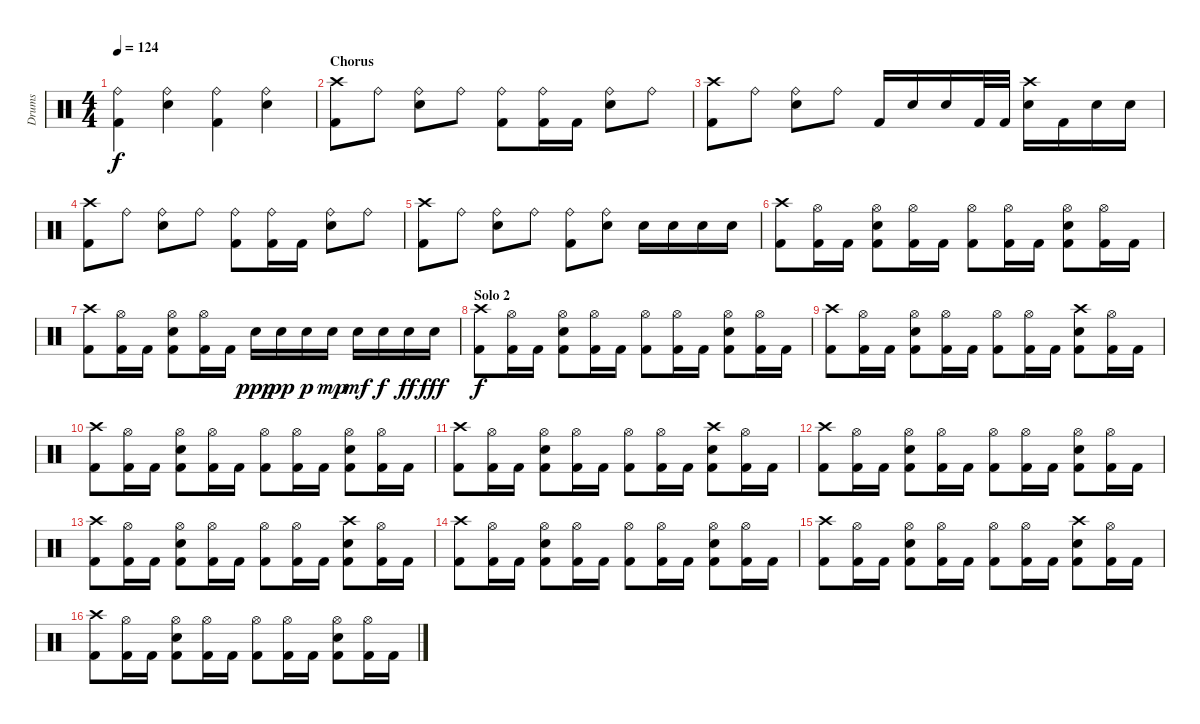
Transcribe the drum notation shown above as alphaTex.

\track ("Drums" "Drums") {instrument percussion}
\staff {score}
\articulation defaults
\ts (4 4)
\tempo 124
\clef neutral
\ks c
("Ride (bell)" "Kick (hit) 2").4{dy f} ("Ride (bell)" "Electric Snare (hit)").4 ("Ride (bell)" "Kick (hit) 2").4 ("Ride (bell)" "Electric Snare (hit)").4 |
\section ("" "Chorus")
("Crash high (hit)" "Kick (hit) 2").8 "Ride (bell)".8 ("Ride (bell)" "Electric Snare (hit)").8 "Ride (bell)".8 ("Ride (bell)" "Kick (hit) 2").8 ("Ride (bell)" "Kick (hit) 2").16 "Kick (hit) 2".16 ("Ride (bell)" "Electric Snare (hit)").8 "Ride (bell)".8 |
("Crash high (hit)" "Kick (hit) 2").8 "Ride (bell)".8 ("Ride (bell)" "Electric Snare (hit)").8 "Ride (bell)".8 "Kick (hit) 2".16 "Electric Snare (hit)".16 "Electric Snare (hit)".16 "Kick (hit) 2".32 "Kick (hit) 2".32 ("Crash high (hit)" "Electric Snare (hit)").16 "Kick (hit) 2".16 "Electric Snare (hit)".16 "Electric Snare (hit)".16 |
("Crash high (hit)" "Kick (hit) 2").8 "Ride (bell)".8 ("Ride (bell)" "Electric Snare (hit)").8 "Ride (bell)".8 ("Ride (bell)" "Kick (hit) 2").8 ("Ride (bell)" "Kick (hit) 2").16 "Kick (hit) 2".16 ("Ride (bell)" "Electric Snare (hit)").8 "Ride (bell)".8 |
("Crash high (hit)" "Kick (hit) 2").8 "Ride (bell)".8 ("Ride (bell)" "Electric Snare (hit)").8 "Ride (bell)".8 ("Ride (bell)" "Kick (hit) 2").8 ("Ride (bell)" "Electric Snare (hit)").8 "Electric Snare (hit)".16 "Electric Snare (hit)".16 "Electric Snare (hit)".16 "Electric Snare (hit)".16 |
\section ("" "")
("Crash high (hit)" "Kick (hit) 2").8 ("Hi-Hat (open)" "Kick (hit) 2").16 "Kick (hit) 2".16 ("Hi-Hat (open)" "Electric Snare (hit)" "Kick (hit) 2").8 ("Hi-Hat (open)" "Kick (hit) 2").16 "Kick (hit) 2".16 ("Hi-Hat (open)" "Kick (hit) 2").8 ("Hi-Hat (open)" "Kick (hit) 2").16 "Kick (hit) 2".16 ("Hi-Hat (open)" "Electric Snare (hit)" "Kick (hit) 2").8 ("Hi-Hat (open)" "Kick (hit) 2").16 "Kick (hit) 2".16 |
("Crash high (hit)" "Kick (hit) 2").8 ("Hi-Hat (open)" "Kick (hit) 2").16 "Kick (hit) 2".16 ("Hi-Hat (open)" "Electric Snare (hit)" "Kick (hit) 2").8 ("Hi-Hat (open)" "Kick (hit) 2").16 "Kick (hit) 2".16 "Electric Snare (hit)".16{dy ppp} "Electric Snare (hit)".16{dy pp} "Electric Snare (hit)".16{dy p} "Electric Snare (hit)".16{dy mp} "Electric Snare (hit)".16{dy mf} "Electric Snare (hit)".16{dy f} "Electric Snare (hit)".16{dy ff} "Electric Snare (hit)".16{dy fff} |
\section ("" "Solo 2")
("Crash high (hit)" "Kick (hit) 2").8{dy f} ("Hi-Hat (open)" "Kick (hit) 2").16 "Kick (hit) 2".16 ("Hi-Hat (open)" "Electric Snare (hit)" "Kick (hit) 2").8 ("Hi-Hat (open)" "Kick (hit) 2").16 "Kick (hit) 2".16 ("Hi-Hat (open)" "Kick (hit) 2").8 ("Hi-Hat (open)" "Kick (hit) 2").16 "Kick (hit) 2".16 ("Hi-Hat (open)" "Electric Snare (hit)" "Kick (hit) 2").8 ("Hi-Hat (open)" "Kick (hit) 2").16 "Kick (hit) 2".16 |
("Crash high (hit)" "Kick (hit) 2").8 ("Hi-Hat (open)" "Kick (hit) 2").16 "Kick (hit) 2".16 ("Hi-Hat (open)" "Electric Snare (hit)" "Kick (hit) 2").8 ("Hi-Hat (open)" "Kick (hit) 2").16 "Kick (hit) 2".16 ("Hi-Hat (open)" "Kick (hit) 2").8 ("Hi-Hat (open)" "Kick (hit) 2").16 "Kick (hit) 2".16 ("Crash high (hit)" "Electric Snare (hit)" "Kick (hit) 2").8 ("Hi-Hat (open)" "Kick (hit) 2").16 "Kick (hit) 2".16 |
("Crash high (hit)" "Kick (hit) 2").8 ("Hi-Hat (open)" "Kick (hit) 2").16 "Kick (hit) 2".16 ("Hi-Hat (open)" "Electric Snare (hit)" "Kick (hit) 2").8 ("Hi-Hat (open)" "Kick (hit) 2").16 "Kick (hit) 2".16 ("Hi-Hat (open)" "Kick (hit) 2").8 ("Hi-Hat (open)" "Kick (hit) 2").16 "Kick (hit) 2".16 ("Hi-Hat (open)" "Electric Snare (hit)" "Kick (hit) 2").8 ("Hi-Hat (open)" "Kick (hit) 2").16 "Kick (hit) 2".16 |
("Crash high (hit)" "Kick (hit) 2").8 ("Hi-Hat (open)" "Kick (hit) 2").16 "Kick (hit) 2".16 ("Hi-Hat (open)" "Electric Snare (hit)" "Kick (hit) 2").8 ("Hi-Hat (open)" "Kick (hit) 2").16 "Kick (hit) 2".16 ("Hi-Hat (open)" "Kick (hit) 2").8 ("Hi-Hat (open)" "Kick (hit) 2").16 "Kick (hit) 2".16 ("Crash high (hit)" "Electric Snare (hit)" "Kick (hit) 2").8 ("Hi-Hat (open)" "Kick (hit) 2").16 "Kick (hit) 2".16 |
("Crash high (hit)" "Kick (hit) 2").8 ("Hi-Hat (open)" "Kick (hit) 2").16 "Kick (hit) 2".16 ("Hi-Hat (open)" "Electric Snare (hit)" "Kick (hit) 2").8 ("Hi-Hat (open)" "Kick (hit) 2").16 "Kick (hit) 2".16 ("Hi-Hat (open)" "Kick (hit) 2").8 ("Hi-Hat (open)" "Kick (hit) 2").16 "Kick (hit) 2".16 ("Hi-Hat (open)" "Electric Snare (hit)" "Kick (hit) 2").8 ("Hi-Hat (open)" "Kick (hit) 2").16 "Kick (hit) 2".16 |
("Crash high (hit)" "Kick (hit) 2").8 ("Hi-Hat (open)" "Kick (hit) 2").16 "Kick (hit) 2".16 ("Hi-Hat (open)" "Electric Snare (hit)" "Kick (hit) 2").8 ("Hi-Hat (open)" "Kick (hit) 2").16 "Kick (hit) 2".16 ("Hi-Hat (open)" "Kick (hit) 2").8 ("Hi-Hat (open)" "Kick (hit) 2").16 "Kick (hit) 2".16 ("Crash high (hit)" "Electric Snare (hit)" "Kick (hit) 2").8 ("Hi-Hat (open)" "Kick (hit) 2").16 "Kick (hit) 2".16 |
("Crash high (hit)" "Kick (hit) 2").8 ("Hi-Hat (open)" "Kick (hit) 2").16 "Kick (hit) 2".16 ("Hi-Hat (open)" "Electric Snare (hit)" "Kick (hit) 2").8 ("Hi-Hat (open)" "Kick (hit) 2").16 "Kick (hit) 2".16 ("Hi-Hat (open)" "Kick (hit) 2").8 ("Hi-Hat (open)" "Kick (hit) 2").16 "Kick (hit) 2".16 ("Hi-Hat (open)" "Electric Snare (hit)" "Kick (hit) 2").8 ("Hi-Hat (open)" "Kick (hit) 2").16 "Kick (hit) 2".16 |
("Crash high (hit)" "Kick (hit) 2").8 ("Hi-Hat (open)" "Kick (hit) 2").16 "Kick (hit) 2".16 ("Hi-Hat (open)" "Electric Snare (hit)" "Kick (hit) 2").8 ("Hi-Hat (open)" "Kick (hit) 2").16 "Kick (hit) 2".16 ("Hi-Hat (open)" "Kick (hit) 2").8 ("Hi-Hat (open)" "Kick (hit) 2").16 "Kick (hit) 2".16 ("Crash high (hit)" "Electric Snare (hit)" "Kick (hit) 2").8 ("Hi-Hat (open)" "Kick (hit) 2").16 "Kick (hit) 2".16 |
("Crash high (hit)" "Kick (hit) 2").8 ("Hi-Hat (open)" "Kick (hit) 2").16 "Kick (hit) 2".16 ("Hi-Hat (open)" "Electric Snare (hit)" "Kick (hit) 2").8 ("Hi-Hat (open)" "Kick (hit) 2").16 "Kick (hit) 2".16 ("Hi-Hat (open)" "Kick (hit) 2").8 ("Hi-Hat (open)" "Kick (hit) 2").16 "Kick (hit) 2".16 ("Hi-Hat (open)" "Electric Snare (hit)" "Kick (hit) 2").8 ("Hi-Hat (open)" "Kick (hit) 2").16 "Kick (hit) 2".16
